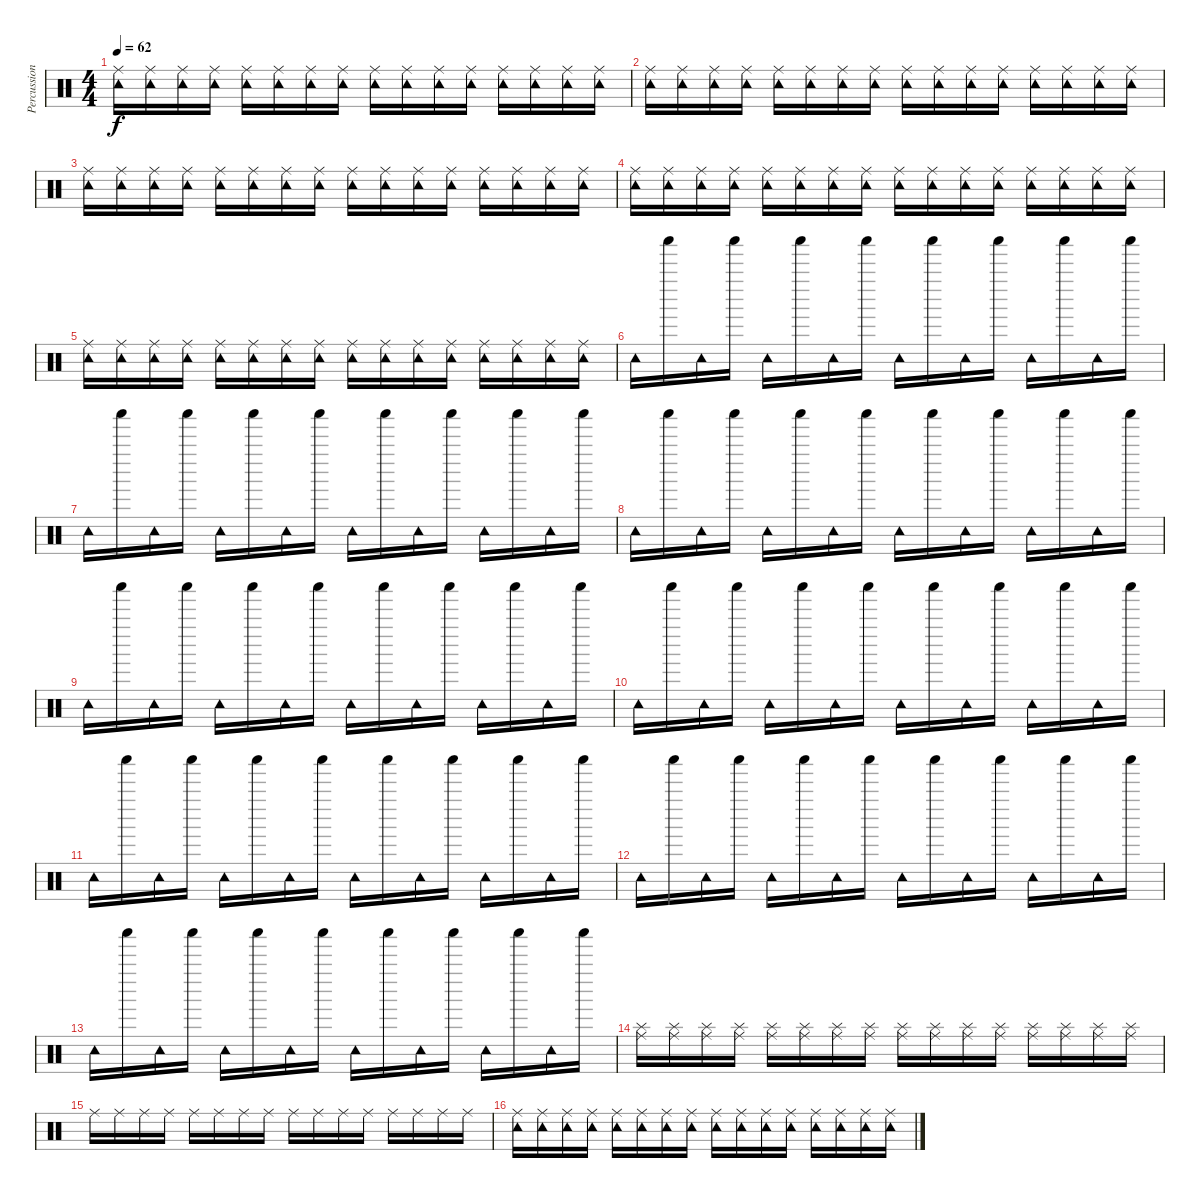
\track ("Percussion" "Percussion") {instrument percussion}
\staff {score}
\articulation defaults
\ts (4 4)
\tempo 62
\clef neutral
\ks c
("Ride (middle)" "Tambourine (hit)").16{dy f} ("Ride (middle)" "Tambourine (hit)").16 ("Ride (middle)" "Tambourine (hit)").16 ("Ride (middle)" "Tambourine (hit)").16 ("Ride (middle)" "Tambourine (hit)").16 ("Ride (middle)" "Tambourine (hit)").16 ("Ride (middle)" "Tambourine (hit)").16 ("Ride (middle)" "Tambourine (hit)").16 ("Ride (middle)" "Tambourine (hit)").16 ("Ride (middle)" "Tambourine (hit)").16 ("Ride (middle)" "Tambourine (hit)").16 ("Ride (middle)" "Tambourine (hit)").16 ("Ride (middle)" "Tambourine (hit)").16 ("Ride (middle)" "Tambourine (hit)").16 ("Ride (middle)" "Tambourine (hit)").16 ("Tambourine (hit)" "Ride (middle)").16 |
("Ride (middle)" "Tambourine (hit)").16 ("Ride (middle)" "Tambourine (hit)").16 ("Ride (middle)" "Tambourine (hit)").16 ("Ride (middle)" "Tambourine (hit)").16 ("Ride (middle)" "Tambourine (hit)").16 ("Ride (middle)" "Tambourine (hit)").16 ("Ride (middle)" "Tambourine (hit)").16 ("Ride (middle)" "Tambourine (hit)").16 ("Ride (middle)" "Tambourine (hit)").16 ("Ride (middle)" "Tambourine (hit)").16 ("Ride (middle)" "Tambourine (hit)").16 ("Ride (middle)" "Tambourine (hit)").16 ("Ride (middle)" "Tambourine (hit)").16 ("Ride (middle)" "Tambourine (hit)").16 ("Ride (middle)" "Tambourine (hit)").16 ("Tambourine (hit)" "Ride (middle)").16 |
("Ride (middle)" "Tambourine (hit)").16 ("Ride (middle)" "Tambourine (hit)").16 ("Ride (middle)" "Tambourine (hit)").16 ("Ride (middle)" "Tambourine (hit)").16 ("Ride (middle)" "Tambourine (hit)").16 ("Ride (middle)" "Tambourine (hit)").16 ("Ride (middle)" "Tambourine (hit)").16 ("Ride (middle)" "Tambourine (hit)").16 ("Ride (middle)" "Tambourine (hit)").16 ("Ride (middle)" "Tambourine (hit)").16 ("Ride (middle)" "Tambourine (hit)").16 ("Ride (middle)" "Tambourine (hit)").16 ("Ride (middle)" "Tambourine (hit)").16 ("Ride (middle)" "Tambourine (hit)").16 ("Ride (middle)" "Tambourine (hit)").16 ("Tambourine (hit)" "Ride (middle)").16 |
("Ride (middle)" "Tambourine (hit)").16 ("Ride (middle)" "Tambourine (hit)").16 ("Ride (middle)" "Tambourine (hit)").16 ("Ride (middle)" "Tambourine (hit)").16 ("Ride (middle)" "Tambourine (hit)").16 ("Ride (middle)" "Tambourine (hit)").16 ("Ride (middle)" "Tambourine (hit)").16 ("Ride (middle)" "Tambourine (hit)").16 ("Ride (middle)" "Tambourine (hit)").16 ("Ride (middle)" "Tambourine (hit)").16 ("Ride (middle)" "Tambourine (hit)").16 ("Ride (middle)" "Tambourine (hit)").16 ("Ride (middle)" "Tambourine (hit)").16 ("Ride (middle)" "Tambourine (hit)").16 ("Ride (middle)" "Tambourine (hit)").16 ("Tambourine (hit)" "Ride (middle)").16 |
("Ride (middle)" "Tambourine (hit)").16 ("Ride (middle)" "Tambourine (hit)").16 ("Ride (middle)" "Tambourine (hit)").16 ("Ride (middle)" "Tambourine (hit)").16 ("Ride (middle)" "Tambourine (hit)").16 ("Ride (middle)" "Tambourine (hit)").16 ("Ride (middle)" "Tambourine (hit)").16 ("Ride (middle)" "Tambourine (hit)").16 ("Ride (middle)" "Tambourine (hit)").16 ("Ride (middle)" "Tambourine (hit)").16 ("Ride (middle)" "Tambourine (hit)").16 ("Ride (middle)" "Tambourine (hit)").16 ("Ride (middle)" "Tambourine (hit)").16 ("Ride (middle)" "Tambourine (hit)").16 ("Ride (middle)" "Tambourine (hit)").16 ("Tambourine (hit)" "Ride (middle)").16 |
"Tambourine (hit)".16 "Shaker (hit)".16 "Tambourine (hit)".16 "Shaker (hit)".16 "Tambourine (hit)".16 "Shaker (hit)".16 "Tambourine (hit)".16 "Shaker (hit)".16 "Tambourine (hit)".16 "Shaker (hit)".16 "Tambourine (hit)".16 "Shaker (hit)".16 "Tambourine (hit)".16 "Shaker (hit)".16 "Tambourine (hit)".16 "Shaker (hit)".16 |
"Tambourine (hit)".16 "Shaker (hit)".16 "Tambourine (hit)".16 "Shaker (hit)".16 "Tambourine (hit)".16 "Shaker (hit)".16 "Tambourine (hit)".16 "Shaker (hit)".16 "Tambourine (hit)".16 "Shaker (hit)".16 "Tambourine (hit)".16 "Shaker (hit)".16 "Tambourine (hit)".16 "Shaker (hit)".16 "Tambourine (hit)".16 "Shaker (hit)".16 |
"Tambourine (hit)".16 "Shaker (hit)".16 "Tambourine (hit)".16 "Shaker (hit)".16 "Tambourine (hit)".16 "Shaker (hit)".16 "Tambourine (hit)".16 "Shaker (hit)".16 "Tambourine (hit)".16 "Shaker (hit)".16 "Tambourine (hit)".16 "Shaker (hit)".16 "Tambourine (hit)".16 "Shaker (hit)".16 "Tambourine (hit)".16 "Shaker (hit)".16 |
"Tambourine (hit)".16 "Shaker (hit)".16 "Tambourine (hit)".16 "Shaker (hit)".16 "Tambourine (hit)".16 "Shaker (hit)".16 "Tambourine (hit)".16 "Shaker (hit)".16 "Tambourine (hit)".16 "Shaker (hit)".16 "Tambourine (hit)".16 "Shaker (hit)".16 "Tambourine (hit)".16 "Shaker (hit)".16 "Tambourine (hit)".16 "Shaker (hit)".16 |
"Tambourine (hit)".16 "Shaker (hit)".16 "Tambourine (hit)".16 "Shaker (hit)".16 "Tambourine (hit)".16 "Shaker (hit)".16 "Tambourine (hit)".16 "Shaker (hit)".16 "Tambourine (hit)".16 "Shaker (hit)".16 "Tambourine (hit)".16 "Shaker (hit)".16 "Tambourine (hit)".16 "Shaker (hit)".16 "Tambourine (hit)".16 "Shaker (hit)".16 |
"Tambourine (hit)".16 "Shaker (hit)".16 "Tambourine (hit)".16 "Shaker (hit)".16 "Tambourine (hit)".16 "Shaker (hit)".16 "Tambourine (hit)".16 "Shaker (hit)".16 "Tambourine (hit)".16 "Shaker (hit)".16 "Tambourine (hit)".16 "Shaker (hit)".16 "Tambourine (hit)".16 "Shaker (hit)".16 "Tambourine (hit)".16 "Shaker (hit)".16 |
"Tambourine (hit)".16 "Shaker (hit)".16 "Tambourine (hit)".16 "Shaker (hit)".16 "Tambourine (hit)".16 "Shaker (hit)".16 "Tambourine (hit)".16 "Shaker (hit)".16 "Tambourine (hit)".16 "Shaker (hit)".16 "Tambourine (hit)".16 "Shaker (hit)".16 "Tambourine (hit)".16 "Shaker (hit)".16 "Tambourine (hit)".16 "Shaker (hit)".16 |
"Tambourine (hit)".16 "Shaker (hit)".16 "Tambourine (hit)".16 "Shaker (hit)".16 "Tambourine (hit)".16 "Shaker (hit)".16 "Tambourine (hit)".16 "Shaker (hit)".16 "Tambourine (hit)".16 "Shaker (hit)".16 "Tambourine (hit)".16 "Shaker (hit)".16 "Tambourine (hit)".16 "Shaker (hit)".16 "Tambourine (hit)".16 "Shaker (hit)".16 |
("Ride (middle)" "Splash (hit)").16 ("Ride (middle)" "Splash (hit)").16 ("Ride (middle)" "Splash (hit)").16 ("Ride (middle)" "Splash (hit)").16 ("Ride (middle)" "Splash (hit)").16 ("Splash (hit)" "Ride (middle)").16 ("Splash (hit)" "Ride (middle)").16 ("Splash (hit)" "Ride (middle)").16 ("Splash (hit)" "Ride (middle)").16 ("Splash (hit)" "Ride (middle)").16 ("Splash (hit)" "Ride (middle)").16 ("Splash (hit)" "Ride (middle)").16 ("Splash (hit)" "Ride (middle)").16 ("Splash (hit)" "Ride (middle)").16 ("Splash (hit)" "Ride (middle)").16 ("Splash (hit)" "Ride (middle)").16 |
"Ride (middle)".16 "Ride (middle)".16 "Ride (middle)".16 "Ride (middle)".16 "Ride (middle)".16 "Ride (middle)".16 "Ride (middle)".16 "Ride (middle)".16 "Ride (middle)".16 "Ride (middle)".16 "Ride (middle)".16 "Ride (middle)".16 "Ride (middle)".16 "Ride (middle)".16 "Ride (middle)".16 "Ride (middle)".16 |
("Ride (middle)" "Tambourine (hit)").16 ("Ride (middle)" "Tambourine (hit)").16 ("Ride (middle)" "Tambourine (hit)").16 ("Ride (middle)" "Tambourine (hit)").16 ("Ride (middle)" "Tambourine (hit)").16 ("Ride (middle)" "Tambourine (hit)").16 ("Ride (middle)" "Tambourine (hit)").16 ("Ride (middle)" "Tambourine (hit)").16 ("Ride (middle)" "Tambourine (hit)").16 ("Ride (middle)" "Tambourine (hit)").16 ("Ride (middle)" "Tambourine (hit)").16 ("Ride (middle)" "Tambourine (hit)").16 ("Ride (middle)" "Tambourine (hit)").16 ("Ride (middle)" "Tambourine (hit)").16 ("Ride (middle)" "Tambourine (hit)").16 ("Tambourine (hit)" "Ride (middle)").16
